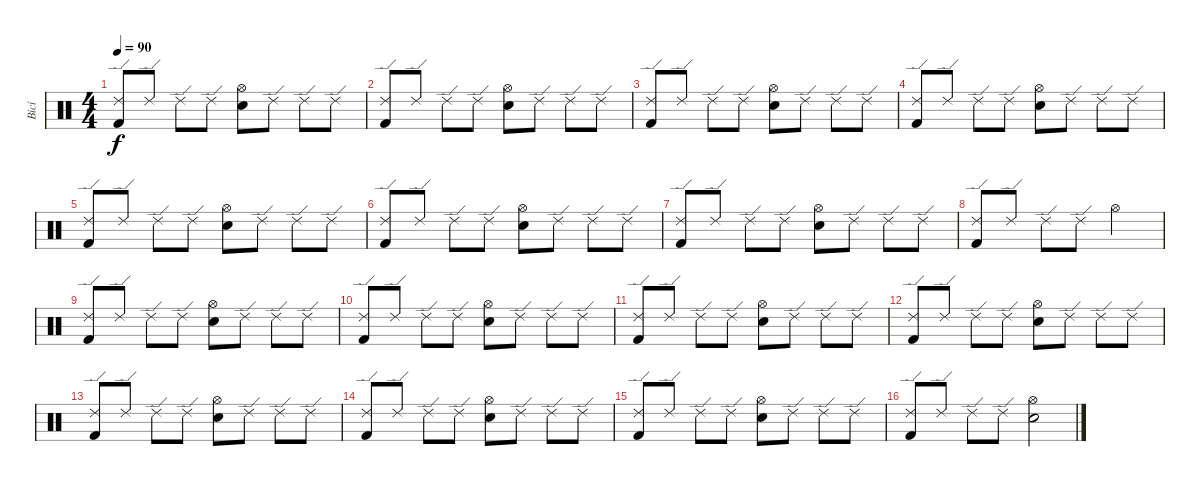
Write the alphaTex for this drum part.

\track ("Bicí" "Bicí") {instrument percussion}
\staff {score}
\articulation defaults
\ts (4 4)
\tempo 90
\clef neutral
\ks c
("Ride (edge) 2" "Kick (hit) 2").8{dy f} "Ride (edge) 2".8 "Ride (edge) 2".8 "Ride (edge) 2".8 ("Hi-Hat (open)" "Electric Snare (hit)").8 "Ride (edge) 2".8 "Ride (edge) 2".8 "Ride (edge) 2".8 |
("Ride (edge) 2" "Kick (hit) 2").8 "Ride (edge) 2".8 "Ride (edge) 2".8 "Ride (edge) 2".8 ("Hi-Hat (open)" "Electric Snare (hit)").8 "Ride (edge) 2".8 "Ride (edge) 2".8 "Ride (edge) 2".8 |
("Ride (edge) 2" "Kick (hit) 2").8 "Ride (edge) 2".8 "Ride (edge) 2".8 "Ride (edge) 2".8 ("Hi-Hat (open)" "Electric Snare (hit)").8 "Ride (edge) 2".8 "Ride (edge) 2".8 "Ride (edge) 2".8 |
("Ride (edge) 2" "Kick (hit) 2").8 "Ride (edge) 2".8 "Ride (edge) 2".8 "Ride (edge) 2".8 ("Hi-Hat (open)" "Electric Snare (hit)").8 "Ride (edge) 2".8 "Ride (edge) 2".8 "Ride (edge) 2".8 |
("Ride (edge) 2" "Kick (hit) 2").8 "Ride (edge) 2".8 "Ride (edge) 2".8 "Ride (edge) 2".8 ("Hi-Hat (open)" "Electric Snare (hit)").8 "Ride (edge) 2".8 "Ride (edge) 2".8 "Ride (edge) 2".8 |
("Ride (edge) 2" "Kick (hit) 2").8 "Ride (edge) 2".8 "Ride (edge) 2".8 "Ride (edge) 2".8 ("Hi-Hat (open)" "Electric Snare (hit)").8 "Ride (edge) 2".8 "Ride (edge) 2".8 "Ride (edge) 2".8 |
("Ride (edge) 2" "Kick (hit) 2").8 "Ride (edge) 2".8 "Ride (edge) 2".8 "Ride (edge) 2".8 ("Hi-Hat (open)" "Electric Snare (hit)").8 "Ride (edge) 2".8 "Ride (edge) 2".8 "Ride (edge) 2".8 |
("Ride (edge) 2" "Kick (hit) 2").8 "Ride (edge) 2".8 "Ride (edge) 2".8 "Ride (edge) 2".8 "Hi-Hat (open)".2 |
("Ride (edge) 2" "Kick (hit) 2").8 "Ride (edge) 2".8 "Ride (edge) 2".8 "Ride (edge) 2".8 ("Hi-Hat (open)" "Electric Snare (hit)").8 "Ride (edge) 2".8 "Ride (edge) 2".8 "Ride (edge) 2".8 |
("Ride (edge) 2" "Kick (hit) 2").8 "Ride (edge) 2".8 "Ride (edge) 2".8 "Ride (edge) 2".8 ("Hi-Hat (open)" "Electric Snare (hit)").8 "Ride (edge) 2".8 "Ride (edge) 2".8 "Ride (edge) 2".8 |
("Ride (edge) 2" "Kick (hit) 2").8 "Ride (edge) 2".8 "Ride (edge) 2".8 "Ride (edge) 2".8 ("Hi-Hat (open)" "Electric Snare (hit)").8 "Ride (edge) 2".8 "Ride (edge) 2".8 "Ride (edge) 2".8 |
("Ride (edge) 2" "Kick (hit) 2").8 "Ride (edge) 2".8 "Ride (edge) 2".8 "Ride (edge) 2".8 ("Hi-Hat (open)" "Electric Snare (hit)").8 "Ride (edge) 2".8 "Ride (edge) 2".8 "Ride (edge) 2".8 |
("Ride (edge) 2" "Kick (hit) 2").8 "Ride (edge) 2".8 "Ride (edge) 2".8 "Ride (edge) 2".8 ("Hi-Hat (open)" "Electric Snare (hit)").8 "Ride (edge) 2".8 "Ride (edge) 2".8 "Ride (edge) 2".8 |
("Ride (edge) 2" "Kick (hit) 2").8 "Ride (edge) 2".8 "Ride (edge) 2".8 "Ride (edge) 2".8 ("Hi-Hat (open)" "Electric Snare (hit)").8 "Ride (edge) 2".8 "Ride (edge) 2".8 "Ride (edge) 2".8 |
("Ride (edge) 2" "Kick (hit) 2").8 "Ride (edge) 2".8 "Ride (edge) 2".8 "Ride (edge) 2".8 ("Hi-Hat (open)" "Electric Snare (hit)").8 "Ride (edge) 2".8 "Ride (edge) 2".8 "Ride (edge) 2".8 |
("Ride (edge) 2" "Kick (hit) 2").8 "Ride (edge) 2".8 "Ride (edge) 2".8 "Ride (edge) 2".8 ("Hi-Hat (open)" "Electric Snare (hit)").2
